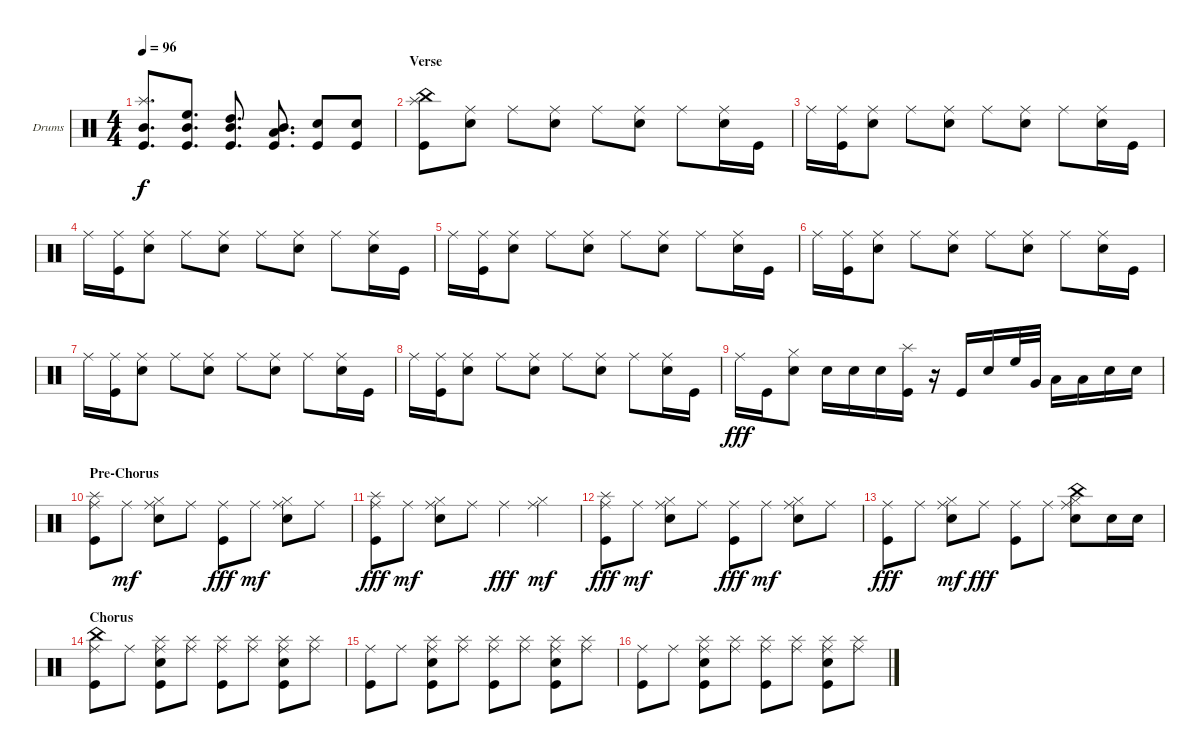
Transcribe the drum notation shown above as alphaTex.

\defaultSystemsLayout 4
\bracketExtendMode groupsimilarinstruments
\firstSystemTrackNameOrientation horizontal
\otherSystemsTrackNameOrientation horizontal
\track ("Howard" "Drums") {instrument percussion}
\staff {score}
\articulation defaults
\ts (4 4)
\tempo 96
\clef neutral
\ks c
("Kick (hit)" "Splash (hit)" "Mid Tom (hit)").8{d dy f} ("Kick (hit)" "High Floor Tom (hit)" "Mid Tom (hit)").8{d} ("Kick (hit)" "High Tom (hit)" "Mid Tom (hit)").8{d} ("Kick (hit)" "Mid Tom (hit)" "Low Tom (hit)").8{d} ("Kick (hit)" "Snare (hit) 2").8 ("Kick (hit)" "Snare (hit) 2").8 |
\section ("" "Verse")
("China (hit)" "Splash (hit)" "Kick (hit)").8 ("Ride (middle)" "Snare (hit) 2").8 "Ride (middle)".8 ("Ride (middle)" "Snare (hit) 2").8 "Ride (middle)".8 ("Ride (middle)" "Snare (hit) 2").8 "Ride (middle)".8 ("Ride (middle)" "Snare (hit) 2").16 "Kick (hit)".16 |
"Ride (middle)".16 ("Ride (middle)" "Kick (hit)").16 ("Ride (middle)" "Snare (hit) 2").8 "Ride (middle)".8 ("Ride (middle)" "Snare (hit) 2").8 "Ride (middle)".8 ("Ride (middle)" "Snare (hit) 2").8 "Ride (middle)".8 ("Ride (middle)" "Snare (hit) 2").16 "Kick (hit)".16 |
"Ride (middle)".16 ("Ride (middle)" "Kick (hit)").16 ("Ride (middle)" "Snare (hit) 2").8 "Ride (middle)".8 ("Ride (middle)" "Snare (hit) 2").8 "Ride (middle)".8 ("Ride (middle)" "Snare (hit) 2").8 "Ride (middle)".8 ("Ride (middle)" "Snare (hit) 2").16 "Kick (hit)".16 |
"Ride (middle)".16 ("Ride (middle)" "Kick (hit)").16 ("Ride (middle)" "Snare (hit) 2").8 "Ride (middle)".8 ("Ride (middle)" "Snare (hit) 2").8 "Ride (middle)".8 ("Ride (middle)" "Snare (hit) 2").8 "Ride (middle)".8 ("Ride (middle)" "Snare (hit) 2").16 "Kick (hit)".16 |
"Ride (middle)".16 ("Ride (middle)" "Kick (hit)").16 ("Ride (middle)" "Snare (hit) 2").8 "Ride (middle)".8 ("Ride (middle)" "Snare (hit) 2").8 "Ride (middle)".8 ("Ride (middle)" "Snare (hit) 2").8 "Ride (middle)".8 ("Ride (middle)" "Snare (hit) 2").16 "Kick (hit)".16 |
"Ride (middle)".16 ("Ride (middle)" "Kick (hit)").16 ("Ride (middle)" "Snare (hit) 2").8 "Ride (middle)".8 ("Ride (middle)" "Snare (hit) 2").8 "Ride (middle)".8 ("Ride (middle)" "Snare (hit) 2").8 "Ride (middle)".8 ("Ride (middle)" "Snare (hit) 2").16 "Kick (hit)".16 |
"Ride (middle)".16 ("Ride (middle)" "Kick (hit)").16 ("Ride (middle)" "Snare (hit) 2").8 "Ride (middle)".8 ("Ride (middle)" "Snare (hit) 2").8 "Ride (middle)".8 ("Ride (middle)" "Snare (hit) 2").8 "Ride (middle)".8 ("Ride (middle)" "Snare (hit) 2").16 "Kick (hit)".16 |
"Ride (middle)".16{dy fff} "Kick (hit)".16 ("Snare (hit) 2" "Hi-Hat (closed)").8 "Snare (hit) 2".16 "Snare (hit) 2".16 "Snare (hit) 2".16 ("Kick (hit)" "Splash (hit)").16 r.16 "Kick (hit)".16 "Snare (hit) 2".16 "High Floor Tom (hit)".32 "Very Low Tom (hit)".32 "Low Tom (hit)".16 "Low Tom (hit)".16 "Snare (hit) 2".16 "Snare (hit) 2".16 |
\section ("" "Pre-Chorus")
("Kick (hit)" "Ride (middle)" "Splash (hit)").8 "Ride (middle)".8{dy mf} ("Snare (hit) 2" "Hi-Hat (closed)" "Ride (middle)").8 "Ride (middle)".8 ("Kick (hit)" "Ride (middle)").8{dy fff} "Ride (middle)".8{dy mf} ("Snare (hit) 2" "Hi-Hat (closed)" "Ride (middle)").8 "Ride (middle)".8 |
("Kick (hit)" "Ride (middle)" "Splash (hit)").8{dy fff} "Ride (middle)".8{dy mf} ("Snare (hit) 2" "Hi-Hat (closed)" "Ride (middle)").8 "Ride (middle)".8 "Ride (middle)".4{dy fff} ("Hi-Hat (closed)" "Ride (middle)").4{dy mf} |
("Kick (hit)" "Ride (middle)" "Splash (hit)").8{dy fff} "Ride (middle)".8{dy mf} ("Snare (hit) 2" "Hi-Hat (closed)" "Ride (middle)").8 "Ride (middle)".8 ("Kick (hit)" "Ride (middle)").8{dy fff} "Ride (middle)".8{dy mf} ("Snare (hit) 2" "Hi-Hat (closed)" "Ride (middle)").8 "Ride (middle)".8 |
("Kick (hit)" "Ride (middle)").8{dy fff} "Ride (middle)".8 ("Snare (hit) 2" "Hi-Hat (closed)" "Ride (middle)").8{dy mf} "Ride (middle)".8{dy fff} ("Kick (hit)" "Ride (middle)").8 "Ride (middle)".8 ("Snare (hit) 2" "Hi-Hat (closed)" "Ride (middle)" "China (hit)").8 "Snare (hit) 2".16 "Snare (hit) 2".16 |
\section ("" "Chorus")
("Kick (hit)" "Ride (middle)" "China (hit)").8 "Ride (middle)".8 ("Splash (hit)" "Ride (middle)" "Kick (hit)" "Snare (hit) 2").8 ("Splash (hit)" "Ride (middle)").8 ("Splash (hit)" "Kick (hit)" "Ride (middle)").8 ("Splash (hit)" "Ride (middle)").8 ("Splash (hit)" "Kick (hit)" "Snare (hit) 2" "Ride (middle)").8 ("Splash (hit)" "Ride (middle)").8 |
("Kick (hit)" "Ride (middle)").8 "Ride (middle)".8 ("Splash (hit)" "Ride (middle)" "Kick (hit)" "Snare (hit) 2").8 ("Splash (hit)" "Ride (middle)").8 ("Splash (hit)" "Kick (hit)" "Ride (middle)").8 ("Splash (hit)" "Ride (middle)").8 ("Splash (hit)" "Kick (hit)" "Snare (hit) 2" "Ride (middle)").8 ("Splash (hit)" "Ride (middle)").8 |
("Kick (hit)" "Ride (middle)").8 "Ride (middle)".8 ("Splash (hit)" "Ride (middle)" "Kick (hit)" "Snare (hit) 2").8 ("Splash (hit)" "Ride (middle)").8 ("Splash (hit)" "Kick (hit)" "Ride (middle)").8 ("Splash (hit)" "Ride (middle)").8 ("Splash (hit)" "Kick (hit)" "Snare (hit) 2" "Ride (middle)").8 ("Splash (hit)" "Ride (middle)").8
